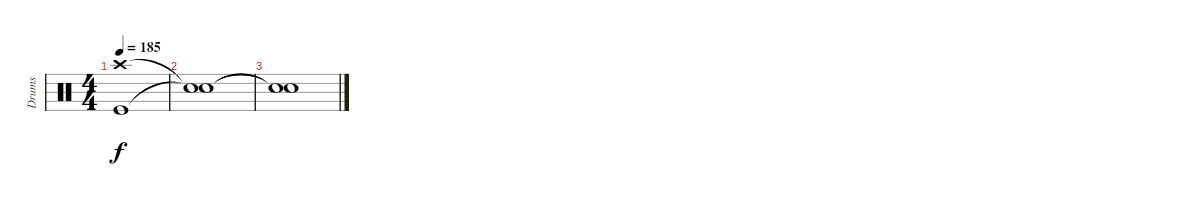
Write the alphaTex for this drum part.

\track ("Drums " "Drums ") {instrument percussion}
\staff {score}
\articulation defaults
\ts (4 4)
\tempo 185
\clef neutral
\ks c
("Crash high (hit)" "Kick (hit)").1{dy f} |
("Snare (hit)"{t} "Snare (hit)"{t}).1 |
("Snare (hit)"{t} "Snare (hit)"{t}).1
